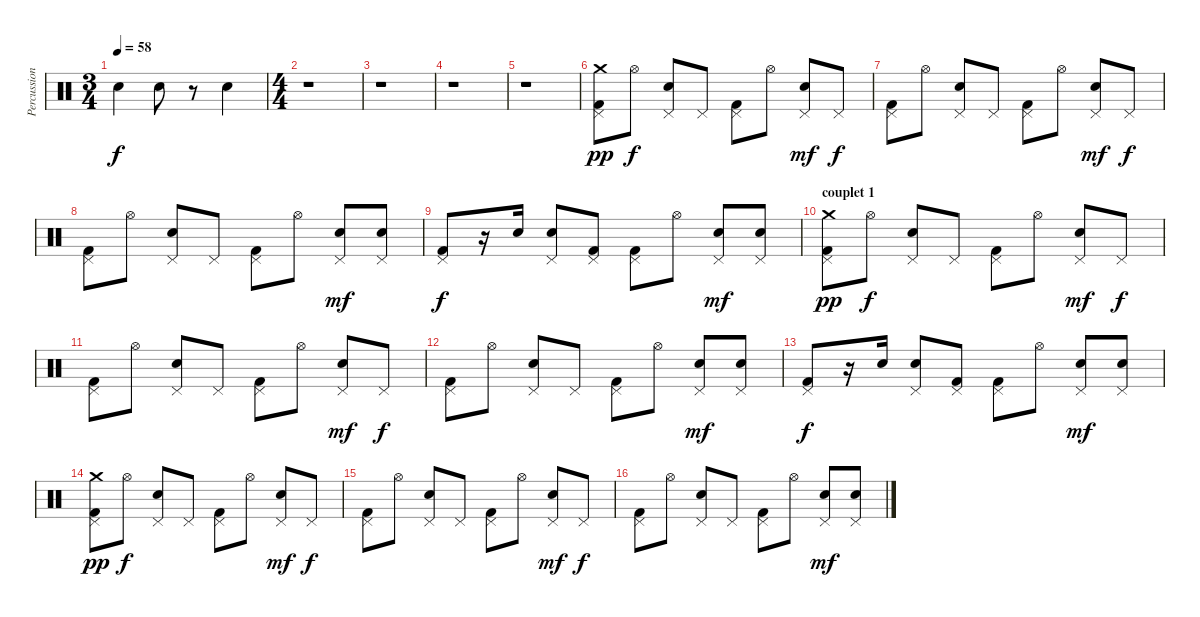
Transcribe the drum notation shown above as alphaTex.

\track ("Percussions" "Percussion") {instrument percussion}
\staff {score}
\articulation defaults
\ts (3 4)
\tempo 58
\clef neutral
\ks c "Electric Snare (hit)".4{dy f} "Electric Snare (hit)".8
r.8 "Electric Snare (hit)".4 |
\ts (4 4)
r.1 |
r.1 |
r.1 |
r.1 |
("Pedal Hi-Hat (hit)" "Kick (hit) 2" "Crash medium (hit)").8{dy pp} "Hi-Hat (open)".8{dy f} ("Pedal Hi-Hat (hit)" "Electric Snare (hit)").8 "Pedal Hi-Hat (hit)".8 ("Pedal Hi-Hat (hit)" "Kick (hit) 2").8 "Hi-Hat (open)".8 ("Pedal Hi-Hat (hit)" "Electric Snare (hit)").8{dy mf} "Pedal Hi-Hat (hit)".8{dy f} |
("Pedal Hi-Hat (hit)" "Kick (hit) 2").8 "Hi-Hat (open)".8 ("Pedal Hi-Hat (hit)" "Electric Snare (hit)").8 "Pedal Hi-Hat (hit)".8 ("Pedal Hi-Hat (hit)" "Kick (hit) 2").8 "Hi-Hat (open)".8 ("Pedal Hi-Hat (hit)" "Electric Snare (hit)").8{dy mf} "Pedal Hi-Hat (hit)".8{dy f} |
("Pedal Hi-Hat (hit)" "Kick (hit) 2").8 "Hi-Hat (open)".8 ("Pedal Hi-Hat (hit)" "Electric Snare (hit)").8 "Pedal Hi-Hat (hit)".8 ("Pedal Hi-Hat (hit)" "Kick (hit) 2").8 "Hi-Hat (open)".8 ("Pedal Hi-Hat (hit)" "Electric Snare (hit)").8{dy mf} ("Pedal Hi-Hat (hit)" "Electric Snare (hit)").8 |
("Pedal Hi-Hat (hit)" "Kick (hit) 2").8{dy f} r.16 "Electric Snare (hit)".16 ("Pedal Hi-Hat (hit)" "Electric Snare (hit)").8 ("Pedal Hi-Hat (hit)" "Kick (hit) 2").8 ("Pedal Hi-Hat (hit)" "Kick (hit) 2").8 "Hi-Hat (open)".8 ("Pedal Hi-Hat (hit)" "Electric Snare (hit)").8{dy mf} ("Pedal Hi-Hat (hit)" "Electric Snare (hit)").8 |
\section ("" "couplet 1")
("Pedal Hi-Hat (hit)" "Kick (hit) 2" "Crash medium (hit)").8{dy pp} "Hi-Hat (open)".8{dy f} ("Pedal Hi-Hat (hit)" "Electric Snare (hit)").8 "Pedal Hi-Hat (hit)".8 ("Pedal Hi-Hat (hit)" "Kick (hit) 2").8 "Hi-Hat (open)".8 ("Pedal Hi-Hat (hit)" "Electric Snare (hit)").8{dy mf} "Pedal Hi-Hat (hit)".8{dy f} |
("Pedal Hi-Hat (hit)" "Kick (hit) 2").8 "Hi-Hat (open)".8 ("Pedal Hi-Hat (hit)" "Electric Snare (hit)").8 "Pedal Hi-Hat (hit)".8 ("Pedal Hi-Hat (hit)" "Kick (hit) 2").8 "Hi-Hat (open)".8 ("Pedal Hi-Hat (hit)" "Electric Snare (hit)").8{dy mf} "Pedal Hi-Hat (hit)".8{dy f} |
("Pedal Hi-Hat (hit)" "Kick (hit) 2").8 "Hi-Hat (open)".8 ("Pedal Hi-Hat (hit)" "Electric Snare (hit)").8 "Pedal Hi-Hat (hit)".8 ("Pedal Hi-Hat (hit)" "Kick (hit) 2").8 "Hi-Hat (open)".8 ("Pedal Hi-Hat (hit)" "Electric Snare (hit)").8{dy mf} ("Pedal Hi-Hat (hit)" "Electric Snare (hit)").8 |
("Pedal Hi-Hat (hit)" "Kick (hit) 2").8{dy f} r.16 "Electric Snare (hit)".16 ("Pedal Hi-Hat (hit)" "Electric Snare (hit)").8 ("Pedal Hi-Hat (hit)" "Kick (hit) 2").8 ("Pedal Hi-Hat (hit)" "Kick (hit) 2").8 "Hi-Hat (open)".8 ("Pedal Hi-Hat (hit)" "Electric Snare (hit)").8{dy mf} ("Pedal Hi-Hat (hit)" "Electric Snare (hit)").8 |
("Pedal Hi-Hat (hit)" "Kick (hit) 2" "Crash medium (hit)").8{dy pp} "Hi-Hat (open)".8{dy f} ("Pedal Hi-Hat (hit)" "Electric Snare (hit)").8 "Pedal Hi-Hat (hit)".8 ("Pedal Hi-Hat (hit)" "Kick (hit) 2").8 "Hi-Hat (open)".8 ("Pedal Hi-Hat (hit)" "Electric Snare (hit)").8{dy mf} "Pedal Hi-Hat (hit)".8{dy f} |
("Pedal Hi-Hat (hit)" "Kick (hit) 2").8 "Hi-Hat (open)".8 ("Pedal Hi-Hat (hit)" "Electric Snare (hit)").8 "Pedal Hi-Hat (hit)".8 ("Pedal Hi-Hat (hit)" "Kick (hit) 2").8 "Hi-Hat (open)".8 ("Pedal Hi-Hat (hit)" "Electric Snare (hit)").8{dy mf} "Pedal Hi-Hat (hit)".8{dy f} |
("Pedal Hi-Hat (hit)" "Kick (hit) 2").8 "Hi-Hat (open)".8 ("Pedal Hi-Hat (hit)" "Electric Snare (hit)").8 "Pedal Hi-Hat (hit)".8 ("Pedal Hi-Hat (hit)" "Kick (hit) 2").8 "Hi-Hat (open)".8 ("Pedal Hi-Hat (hit)" "Electric Snare (hit)").8{dy mf} ("Pedal Hi-Hat (hit)" "Electric Snare (hit)").8
